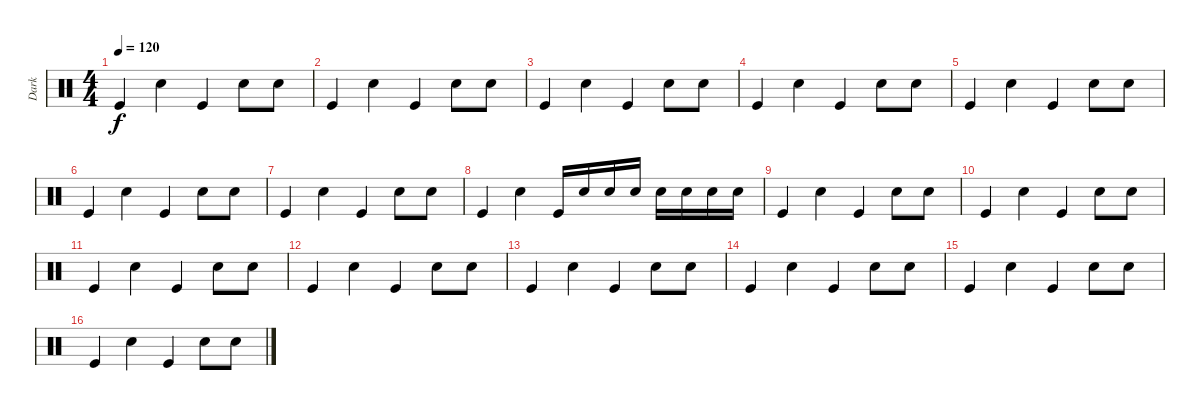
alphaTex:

\track ("Dark" "Dark") {instrument percussion}
\staff {score}
\articulation defaults
\ts (4 4)
\tempo 120
\clef neutral
\ks c "Kick (hit)".4{dy f} "Snare (hit) 2".4 "Kick (hit)".4 "Snare (hit) 2".8 "Snare (hit) 2".8
|
"Kick (hit)".4 "Snare (hit) 2".4 "Kick (hit)".4 "Snare (hit) 2".8 "Snare (hit) 2".8 |
"Kick (hit)".4 "Snare (hit) 2".4 "Kick (hit)".4 "Snare (hit) 2".8 "Snare (hit) 2".8 |
"Kick (hit)".4 "Snare (hit) 2".4 "Kick (hit)".4 "Snare (hit) 2".8 "Snare (hit) 2".8 |
"Kick (hit)".4 "Snare (hit) 2".4 "Kick (hit)".4 "Snare (hit) 2".8 "Snare (hit) 2".8 |
"Kick (hit)".4 "Snare (hit) 2".4 "Kick (hit)".4 "Snare (hit) 2".8 "Snare (hit) 2".8 |
"Kick (hit)".4 "Snare (hit) 2".4 "Kick (hit)".4 "Snare (hit) 2".8 "Snare (hit) 2".8 |
"Kick (hit)".4 "Snare (hit) 2".4 "Kick (hit)".16 "Snare (hit) 2".16 "Snare (hit) 2".16 "Snare (hit) 2".16 "Snare (hit) 2".16 "Snare (hit) 2".16 "Snare (hit) 2".16 "Snare (hit) 2".16 |
"Kick (hit)".4 "Snare (hit) 2".4 "Kick (hit)".4 "Snare (hit) 2".8 "Snare (hit) 2".8 |
"Kick (hit)".4 "Snare (hit) 2".4 "Kick (hit)".4 "Snare (hit) 2".8 "Snare (hit) 2".8 |
"Kick (hit)".4 "Snare (hit) 2".4 "Kick (hit)".4 "Snare (hit) 2".8 "Snare (hit) 2".8 |
"Kick (hit)".4 "Snare (hit) 2".4 "Kick (hit)".4 "Snare (hit) 2".8 "Snare (hit) 2".8 |
"Kick (hit)".4 "Snare (hit) 2".4 "Kick (hit)".4 "Snare (hit) 2".8 "Snare (hit) 2".8 |
"Kick (hit)".4 "Snare (hit) 2".4 "Kick (hit)".4 "Snare (hit) 2".8 "Snare (hit) 2".8 |
"Kick (hit)".4 "Snare (hit) 2".4 "Kick (hit)".4 "Snare (hit) 2".8 "Snare (hit) 2".8 |
"Kick (hit)".4 "Snare (hit) 2".4 "Kick (hit)".4 "Snare (hit) 2".8 "Snare (hit) 2".8
